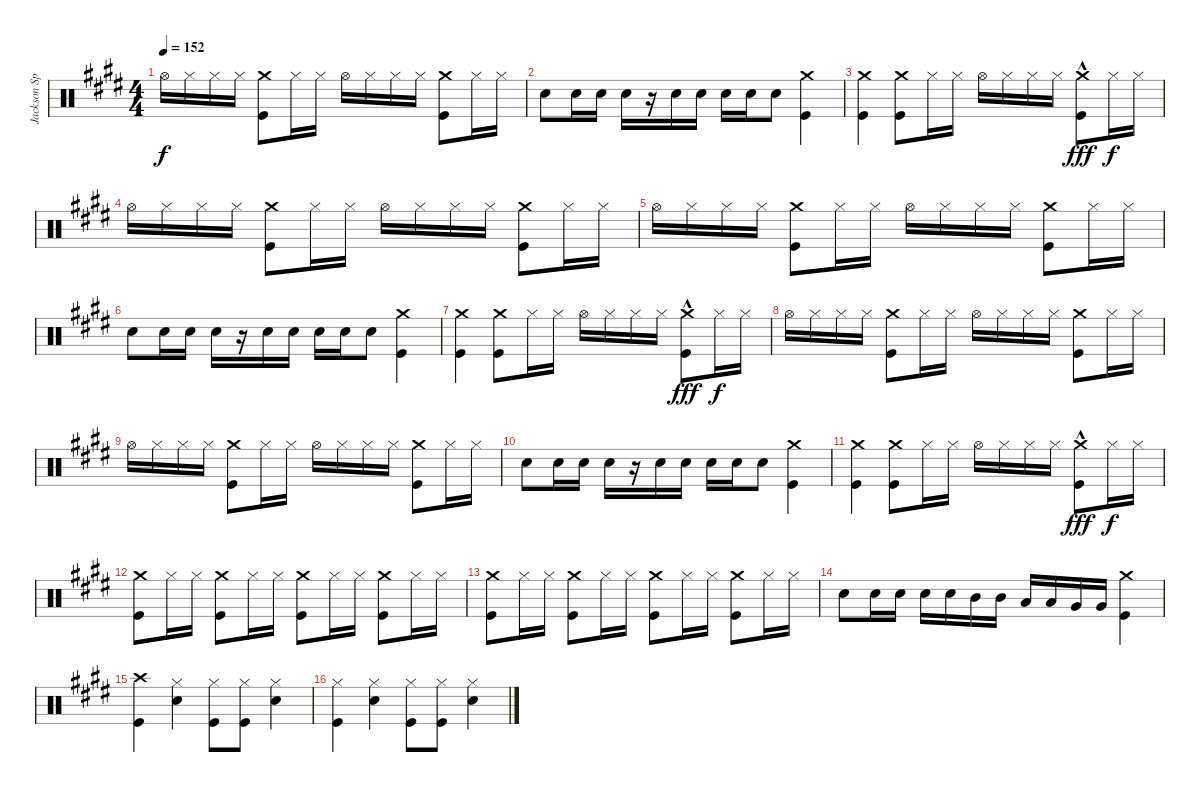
\track ("Jackson Spiers Drums" "Jackson Sp") {instrument percussion}
\staff {score}
\articulation defaults
\ts (4 4)
\tempo 152
\clef neutral
\ks c#minor "Hi-Hat (open)".16{dy f} "Hi-Hat (closed)".16 "Hi-Hat (closed)".16 "Hi-Hat (closed)".16
("Crash medium (hit)" "Kick (hit)").8 "Hi-Hat (closed)".16 "Hi-Hat (closed)".16 "Hi-Hat (open)".16 "Hi-Hat (closed)".16 "Hi-Hat (closed)".16 "Hi-Hat (closed)".16 ("Crash medium (hit)" "Kick (hit)").8 "Hi-Hat (closed)".16 "Hi-Hat (closed)".16 |
"Snare (hit) 2".8 "Snare (hit) 2".16 "Snare (hit) 2".16 "Snare (hit) 2".16 r.16 "Snare (hit) 2".16 "Snare (hit) 2".16 "Snare (hit) 2".16 "Snare (hit) 2".16 "Snare (hit) 2".8 ("Crash medium (hit)" "Kick (hit)").4 |
("Crash medium (hit)" "Kick (hit)").4 ("Crash medium (hit)" "Kick (hit)").8 "Hi-Hat (closed)".16 "Hi-Hat (closed)".16 "Hi-Hat (open)".16 "Hi-Hat (closed)".16 "Hi-Hat (closed)".16 "Hi-Hat (closed)".16 ("Crash medium (hit)" "Kick (hit)"{hac}).8{dy fff} "Hi-Hat (closed)".16{dy f} "Hi-Hat (closed)".16 |
"Hi-Hat (open)".16 "Hi-Hat (closed)".16 "Hi-Hat (closed)".16 "Hi-Hat (closed)".16 ("Crash medium (hit)" "Kick (hit)").8 "Hi-Hat (closed)".16 "Hi-Hat (closed)".16 "Hi-Hat (open)".16 "Hi-Hat (closed)".16 "Hi-Hat (closed)".16 "Hi-Hat (closed)".16 ("Crash medium (hit)" "Kick (hit)").8 "Hi-Hat (closed)".16 "Hi-Hat (closed)".16 |
"Hi-Hat (open)".16 "Hi-Hat (closed)".16 "Hi-Hat (closed)".16 "Hi-Hat (closed)".16 ("Crash medium (hit)" "Kick (hit)").8 "Hi-Hat (closed)".16 "Hi-Hat (closed)".16 "Hi-Hat (open)".16 "Hi-Hat (closed)".16 "Hi-Hat (closed)".16 "Hi-Hat (closed)".16 ("Crash medium (hit)" "Kick (hit)").8 "Hi-Hat (closed)".16 "Hi-Hat (closed)".16 |
"Snare (hit) 2".8 "Snare (hit) 2".16 "Snare (hit) 2".16 "Snare (hit) 2".16 r.16 "Snare (hit) 2".16 "Snare (hit) 2".16 "Snare (hit) 2".16 "Snare (hit) 2".16 "Snare (hit) 2".8 ("Crash medium (hit)" "Kick (hit)").4 |
("Crash medium (hit)" "Kick (hit)").4 ("Crash medium (hit)" "Kick (hit)").8 "Hi-Hat (closed)".16 "Hi-Hat (closed)".16 "Hi-Hat (open)".16 "Hi-Hat (closed)".16 "Hi-Hat (closed)".16 "Hi-Hat (closed)".16 ("Crash medium (hit)" "Kick (hit)"{hac}).8{dy fff} "Hi-Hat (closed)".16{dy f} "Hi-Hat (closed)".16 |
"Hi-Hat (open)".16 "Hi-Hat (closed)".16 "Hi-Hat (closed)".16 "Hi-Hat (closed)".16 ("Crash medium (hit)" "Kick (hit)").8 "Hi-Hat (closed)".16 "Hi-Hat (closed)".16 "Hi-Hat (open)".16 "Hi-Hat (closed)".16 "Hi-Hat (closed)".16 "Hi-Hat (closed)".16 ("Crash medium (hit)" "Kick (hit)").8 "Hi-Hat (closed)".16 "Hi-Hat (closed)".16 |
"Hi-Hat (open)".16 "Hi-Hat (closed)".16 "Hi-Hat (closed)".16 "Hi-Hat (closed)".16 ("Crash medium (hit)" "Kick (hit)").8 "Hi-Hat (closed)".16 "Hi-Hat (closed)".16 "Hi-Hat (open)".16 "Hi-Hat (closed)".16 "Hi-Hat (closed)".16 "Hi-Hat (closed)".16 ("Crash medium (hit)" "Kick (hit)").8 "Hi-Hat (closed)".16 "Hi-Hat (closed)".16 |
"Snare (hit) 2".8 "Snare (hit) 2".16 "Snare (hit) 2".16 "Snare (hit) 2".16 r.16 "Snare (hit) 2".16 "Snare (hit) 2".16 "Snare (hit) 2".16 "Snare (hit) 2".16 "Snare (hit) 2".8 ("Crash medium (hit)" "Kick (hit)").4 |
("Crash medium (hit)" "Kick (hit)").4 ("Crash medium (hit)" "Kick (hit)").8 "Hi-Hat (closed)".16 "Hi-Hat (closed)".16 "Hi-Hat (open)".16 "Hi-Hat (closed)".16 "Hi-Hat (closed)".16 "Hi-Hat (closed)".16 ("Crash medium (hit)" "Kick (hit)"{hac}).8{dy fff} "Hi-Hat (closed)".16{dy f} "Hi-Hat (closed)".16 |
("Crash medium (hit)" "Kick (hit)").8 "Hi-Hat (closed)".16 "Hi-Hat (closed)".16 ("Crash medium (hit)" "Kick (hit)").8 "Hi-Hat (closed)".16 "Hi-Hat (closed)".16 ("Crash medium (hit)" "Kick (hit)").8 "Hi-Hat (closed)".16 "Hi-Hat (closed)".16 ("Crash medium (hit)" "Kick (hit)").8 "Hi-Hat (closed)".16 "Hi-Hat (closed)".16 |
("Crash medium (hit)" "Kick (hit)").8 "Hi-Hat (closed)".16 "Hi-Hat (closed)".16 ("Crash medium (hit)" "Kick (hit)").8 "Hi-Hat (closed)".16 "Hi-Hat (closed)".16 ("Crash medium (hit)" "Kick (hit)").8 "Hi-Hat (closed)".16 "Hi-Hat (closed)".16 ("Crash medium (hit)" "Kick (hit)").8 "Hi-Hat (closed)".16 "Hi-Hat (closed)".16 |
"Snare (hit) 2".8 "Snare (hit) 2".16 "Snare (hit) 2".16 "Snare (hit) 2".16 "Snare (hit) 2".16 "Mid Tom (hit)".16 "Mid Tom (hit)".16 "Low Tom (hit)".16 "Low Tom (hit)".16 "Very Low Tom (hit)".16 "Very Low Tom (hit)".16 ("Crash medium (hit)" "Kick (hit)").4 |
("Crash high (hit)" "Kick (hit)").4 ("Hi-Hat (closed)" "Snare (hit) 2").4 ("Hi-Hat (closed)" "Kick (hit)").8 ("Hi-Hat (closed)" "Kick (hit)").8 ("Hi-Hat (closed)" "Snare (hit) 2").4 |
("Hi-Hat (closed)" "Kick (hit)").4 ("Hi-Hat (closed)" "Snare (hit) 2").4 ("Hi-Hat (closed)" "Kick (hit)").8 ("Hi-Hat (closed)" "Kick (hit)").8 ("Hi-Hat (closed)" "Snare (hit) 2").4
